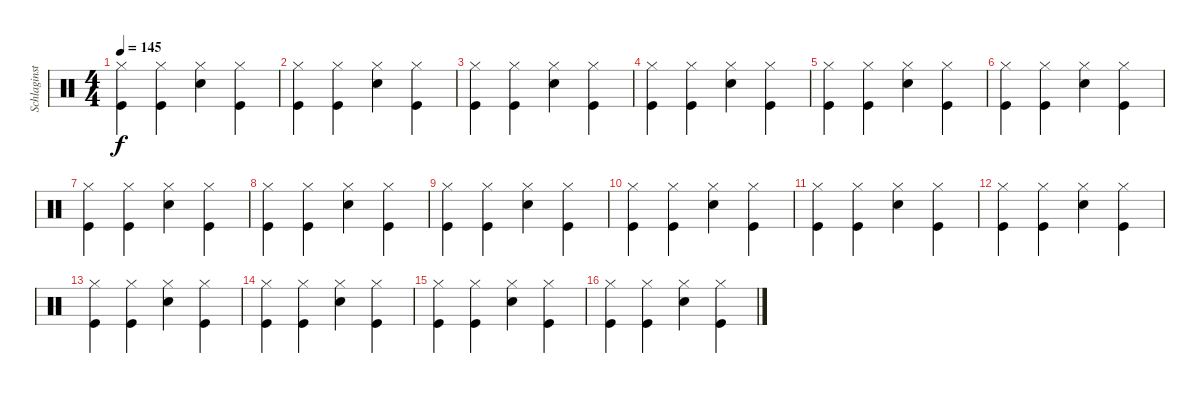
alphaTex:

\track ("Schlaginstrumente - Auswahl" "Schlaginst") {instrument percussion}
\staff {score}
\articulation defaults
\ts (4 4)
\tempo 145
\clef neutral
\ks c
("Kick (hit)" "Hi-Hat (closed)").4{dy f} ("Kick (hit)" "Hi-Hat (closed)").4 ("Snare (hit) 2" "Hi-Hat (closed)").4 ("Hi-Hat (closed)" "Kick (hit)").4 |
("Kick (hit)" "Hi-Hat (closed)").4 ("Kick (hit)" "Hi-Hat (closed)").4 ("Snare (hit) 2" "Hi-Hat (closed)").4 ("Hi-Hat (closed)" "Kick (hit)").4 |
("Kick (hit)" "Hi-Hat (closed)").4 ("Kick (hit)" "Hi-Hat (closed)").4 ("Snare (hit) 2" "Hi-Hat (closed)").4 ("Hi-Hat (closed)" "Kick (hit)").4 |
("Kick (hit)" "Hi-Hat (closed)").4 ("Kick (hit)" "Hi-Hat (closed)").4 ("Snare (hit) 2" "Hi-Hat (closed)").4 ("Hi-Hat (closed)" "Kick (hit)").4 |
("Kick (hit)" "Hi-Hat (closed)").4 ("Kick (hit)" "Hi-Hat (closed)").4 ("Snare (hit) 2" "Hi-Hat (closed)").4 ("Hi-Hat (closed)" "Kick (hit)").4 |
("Kick (hit)" "Hi-Hat (closed)").4 ("Kick (hit)" "Hi-Hat (closed)").4 ("Snare (hit) 2" "Hi-Hat (closed)").4 ("Hi-Hat (closed)" "Kick (hit)").4 |
("Kick (hit)" "Hi-Hat (closed)").4 ("Kick (hit)" "Hi-Hat (closed)").4 ("Snare (hit) 2" "Hi-Hat (closed)").4 ("Hi-Hat (closed)" "Kick (hit)").4 |
("Kick (hit)" "Hi-Hat (closed)").4 ("Kick (hit)" "Hi-Hat (closed)").4 ("Snare (hit) 2" "Hi-Hat (closed)").4 ("Hi-Hat (closed)" "Kick (hit)").4 |
("Kick (hit)" "Hi-Hat (closed)").4 ("Kick (hit)" "Hi-Hat (closed)").4 ("Snare (hit) 2" "Hi-Hat (closed)").4 ("Hi-Hat (closed)" "Kick (hit)").4 |
("Kick (hit)" "Hi-Hat (closed)").4 ("Kick (hit)" "Hi-Hat (closed)").4 ("Snare (hit) 2" "Hi-Hat (closed)").4 ("Hi-Hat (closed)" "Kick (hit)").4 |
("Kick (hit)" "Hi-Hat (closed)").4 ("Kick (hit)" "Hi-Hat (closed)").4 ("Snare (hit) 2" "Hi-Hat (closed)").4 ("Hi-Hat (closed)" "Kick (hit)").4 |
("Kick (hit)" "Hi-Hat (closed)").4 ("Kick (hit)" "Hi-Hat (closed)").4 ("Snare (hit) 2" "Hi-Hat (closed)").4 ("Hi-Hat (closed)" "Kick (hit)").4 |
("Kick (hit)" "Hi-Hat (closed)").4 ("Kick (hit)" "Hi-Hat (closed)").4 ("Snare (hit) 2" "Hi-Hat (closed)").4 ("Hi-Hat (closed)" "Kick (hit)").4 |
("Kick (hit)" "Hi-Hat (closed)").4 ("Kick (hit)" "Hi-Hat (closed)").4 ("Snare (hit) 2" "Hi-Hat (closed)").4 ("Hi-Hat (closed)" "Kick (hit)").4 |
("Kick (hit)" "Hi-Hat (closed)").4 ("Kick (hit)" "Hi-Hat (closed)").4 ("Snare (hit) 2" "Hi-Hat (closed)").4 ("Hi-Hat (closed)" "Kick (hit)").4 |
("Kick (hit)" "Hi-Hat (closed)").4 ("Kick (hit)" "Hi-Hat (closed)").4 ("Snare (hit) 2" "Hi-Hat (closed)").4 ("Hi-Hat (closed)" "Kick (hit)").4
